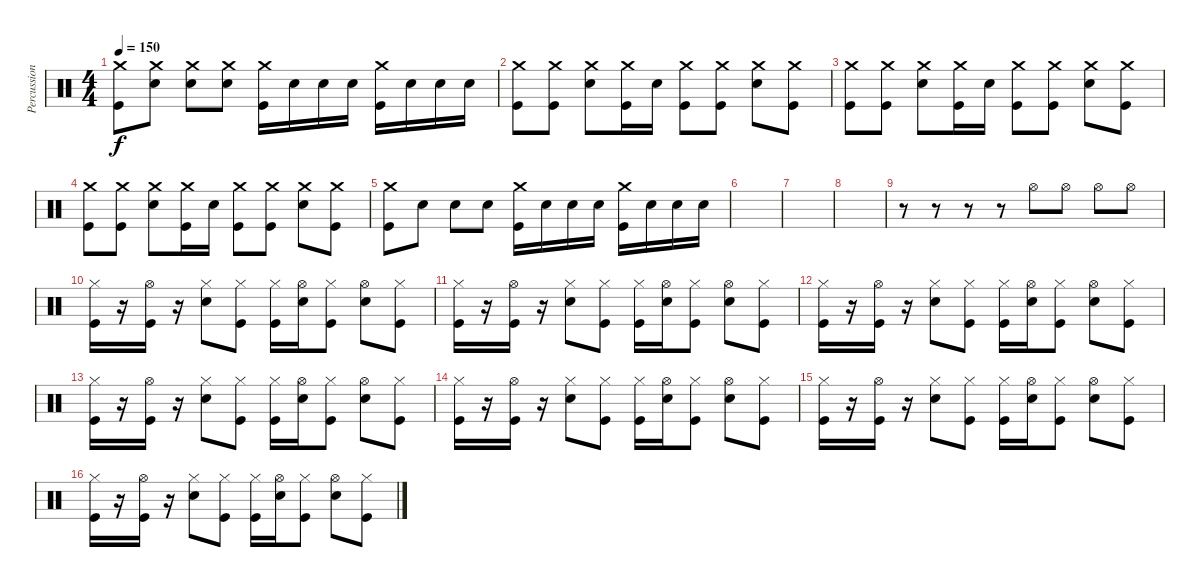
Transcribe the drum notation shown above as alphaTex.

\track ("Percussion" "Percussion") {instrument percussion}
\staff {score}
\articulation defaults
\ts (4 4)
\tempo 150
\clef neutral
\ks c
("Crash medium (hit)" "Kick (hit)").8{dy f} ("Crash medium (hit)" "Electric Snare (hit)").8 ("Crash medium (hit)" "Electric Snare (hit)").8 ("Crash medium (hit)" "Electric Snare (hit)").8 ("Crash medium (hit)" "Kick (hit)").16 "Electric Snare (hit)".16 "Electric Snare (hit)".16 "Electric Snare (hit)".16 ("Crash medium (hit)" "Kick (hit)").16 "Electric Snare (hit)".16 "Electric Snare (hit)".16 "Electric Snare (hit)".16 |
("Crash medium (hit)" "Kick (hit)").8 ("Crash medium (hit)" "Kick (hit)").8 ("Crash medium (hit)" "Electric Snare (hit)").8 ("Crash medium (hit)" "Kick (hit)").16 "Electric Snare (hit)".16 ("Crash medium (hit)" "Kick (hit)").8 ("Crash medium (hit)" "Kick (hit)").8 ("Crash medium (hit)" "Electric Snare (hit)").8 ("Crash medium (hit)" "Kick (hit)").8 |
("Crash medium (hit)" "Kick (hit)").8 ("Crash medium (hit)" "Kick (hit)").8 ("Crash medium (hit)" "Electric Snare (hit)").8 ("Crash medium (hit)" "Kick (hit)").16 "Electric Snare (hit)".16 ("Crash medium (hit)" "Kick (hit)").8 ("Crash medium (hit)" "Kick (hit)").8 ("Crash medium (hit)" "Electric Snare (hit)").8 ("Crash medium (hit)" "Kick (hit)").8 |
("Crash medium (hit)" "Kick (hit)").8 ("Crash medium (hit)" "Kick (hit)").8 ("Crash medium (hit)" "Electric Snare (hit)").8 ("Crash medium (hit)" "Kick (hit)").16 "Electric Snare (hit)".16 ("Crash medium (hit)" "Kick (hit)").8 ("Crash medium (hit)" "Kick (hit)").8 ("Crash medium (hit)" "Electric Snare (hit)").8 ("Crash medium (hit)" "Kick (hit)").8 |
("Crash medium (hit)" "Kick (hit)").8 "Electric Snare (hit)".8 "Electric Snare (hit)".8 "Electric Snare (hit)".8 ("Crash medium (hit)" "Kick (hit)").16 "Electric Snare (hit)".16 "Electric Snare (hit)".16 "Electric Snare (hit)".16 ("Crash medium (hit)" "Kick (hit)").16 "Electric Snare (hit)".16 "Electric Snare (hit)".16 "Electric Snare (hit)".16 |
|
|
|
r.8 r.8 r.8 r.8 "Hi-Hat (open)".8 "Hi-Hat (open)".8 "Hi-Hat (open)".8 "Hi-Hat (open)".8 |
("Hi-Hat (closed)" "Kick (hit)").16 r.16 ("Hi-Hat (open)" "Kick (hit)").16 r.16 ("Hi-Hat (closed)" "Electric Snare (hit)").8 ("Hi-Hat (closed)" "Kick (hit)").8 ("Hi-Hat (closed)" "Kick (hit)").16 ("Hi-Hat (open)" "Electric Snare (hit)").16 ("Hi-Hat (closed)" "Kick (hit)").8 ("Hi-Hat (open)" "Electric Snare (hit)").8 ("Hi-Hat (closed)" "Kick (hit)").8 |
("Hi-Hat (closed)" "Kick (hit)").16 r.16 ("Hi-Hat (open)" "Kick (hit)").16 r.16 ("Hi-Hat (closed)" "Electric Snare (hit)").8 ("Hi-Hat (closed)" "Kick (hit)").8 ("Hi-Hat (closed)" "Kick (hit)").16 ("Hi-Hat (open)" "Electric Snare (hit)").16 ("Hi-Hat (closed)" "Kick (hit)").8 ("Hi-Hat (open)" "Electric Snare (hit)").8 ("Hi-Hat (closed)" "Kick (hit)").8 |
("Hi-Hat (closed)" "Kick (hit)").16 r.16 ("Hi-Hat (open)" "Kick (hit)").16 r.16 ("Hi-Hat (closed)" "Electric Snare (hit)").8 ("Hi-Hat (closed)" "Kick (hit)").8 ("Hi-Hat (closed)" "Kick (hit)").16 ("Hi-Hat (open)" "Electric Snare (hit)").16 ("Hi-Hat (closed)" "Kick (hit)").8 ("Hi-Hat (open)" "Electric Snare (hit)").8 ("Hi-Hat (closed)" "Kick (hit)").8 |
("Hi-Hat (closed)" "Kick (hit)").16 r.16 ("Hi-Hat (open)" "Kick (hit)").16 r.16 ("Hi-Hat (closed)" "Electric Snare (hit)").8 ("Hi-Hat (closed)" "Kick (hit)").8 ("Hi-Hat (closed)" "Kick (hit)").16 ("Hi-Hat (open)" "Electric Snare (hit)").16 ("Hi-Hat (closed)" "Kick (hit)").8 ("Hi-Hat (open)" "Electric Snare (hit)").8 ("Hi-Hat (closed)" "Kick (hit)").8 |
("Hi-Hat (closed)" "Kick (hit)").16 r.16 ("Hi-Hat (open)" "Kick (hit)").16 r.16 ("Hi-Hat (closed)" "Electric Snare (hit)").8 ("Hi-Hat (closed)" "Kick (hit)").8 ("Hi-Hat (closed)" "Kick (hit)").16 ("Hi-Hat (open)" "Electric Snare (hit)").16 ("Hi-Hat (closed)" "Kick (hit)").8 ("Hi-Hat (open)" "Electric Snare (hit)").8 ("Hi-Hat (closed)" "Kick (hit)").8 |
("Hi-Hat (closed)" "Kick (hit)").16 r.16 ("Hi-Hat (open)" "Kick (hit)").16 r.16 ("Hi-Hat (closed)" "Electric Snare (hit)").8 ("Hi-Hat (closed)" "Kick (hit)").8 ("Hi-Hat (closed)" "Kick (hit)").16 ("Hi-Hat (open)" "Electric Snare (hit)").16 ("Hi-Hat (closed)" "Kick (hit)").8 ("Hi-Hat (open)" "Electric Snare (hit)").8 ("Hi-Hat (closed)" "Kick (hit)").8 |
("Hi-Hat (closed)" "Kick (hit)").16 r.16 ("Hi-Hat (open)" "Kick (hit)").16 r.16 ("Hi-Hat (closed)" "Electric Snare (hit)").8 ("Hi-Hat (closed)" "Kick (hit)").8 ("Hi-Hat (closed)" "Kick (hit)").16 ("Hi-Hat (open)" "Electric Snare (hit)").16 ("Hi-Hat (closed)" "Kick (hit)").8 ("Hi-Hat (open)" "Electric Snare (hit)").8 ("Hi-Hat (closed)" "Kick (hit)").8
